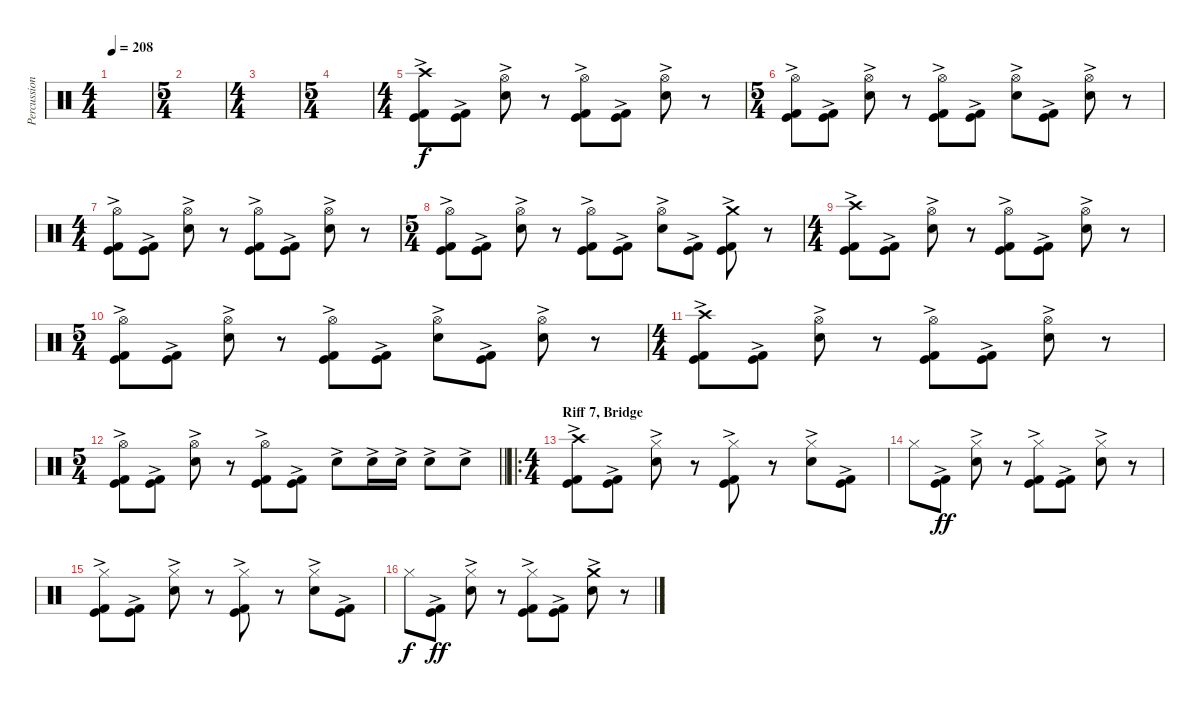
\track ("Percussion" "Percussion") {instrument percussion}
\staff {score}
\articulation defaults
\ts (4 4)
\tempo 208
\clef neutral
\ks c
|
\ts (5 4)
|
\ts (4 4)
|
\ts (5 4)
|
\ts (4 4)
("Kick (hit) 2"{ac} "Kick (hit)"{ac} "Crash high (hit)").8 ("Kick (hit) 2"{ac} "Kick (hit)"{ac}).8 ("Snare (hit) 2"{ac} "Hi-Hat (open)").8 r.8 ("Kick (hit) 2"{ac} "Kick (hit)"{ac} "Hi-Hat (open)").8 ("Kick (hit) 2"{ac} "Kick (hit)"{ac}).8 ("Snare (hit) 2"{ac} "Hi-Hat (open)").8 r.8 |
\ts (5 4)
("Kick (hit) 2"{ac} "Kick (hit)"{ac} "Hi-Hat (open)").8 ("Kick (hit) 2"{ac} "Kick (hit)"{ac}).8 ("Snare (hit) 2"{ac} "Hi-Hat (open)").8 r.8 ("Kick (hit) 2"{ac} "Kick (hit)"{ac} "Hi-Hat (open)").8 ("Kick (hit) 2"{ac} "Kick (hit)"{ac}).8 ("Snare (hit) 2"{ac} "Hi-Hat (open)").8 ("Kick (hit) 2"{ac} "Kick (hit)"{ac}).8 ("Snare (hit) 2"{ac} "Hi-Hat (open)").8 r.8 |
\ts (4 4)
("Kick (hit) 2"{ac} "Kick (hit)"{ac} "Hi-Hat (open)").8 ("Kick (hit) 2"{ac} "Kick (hit)"{ac}).8 ("Snare (hit) 2"{ac} "Hi-Hat (open)").8 r.8 ("Kick (hit) 2"{ac} "Kick (hit)"{ac} "Hi-Hat (open)").8 ("Kick (hit) 2"{ac} "Kick (hit)"{ac}).8 ("Snare (hit) 2"{ac} "Hi-Hat (open)").8 r.8 |
\ts (5 4)
("Kick (hit) 2"{ac} "Kick (hit)"{ac} "Hi-Hat (open)").8 ("Kick (hit) 2"{ac} "Kick (hit)"{ac}).8 ("Snare (hit) 2"{ac} "Hi-Hat (open)").8 r.8 ("Kick (hit) 2"{ac} "Kick (hit)"{ac} "Hi-Hat (open)").8 ("Kick (hit) 2"{ac} "Kick (hit)"{ac}).8 ("Snare (hit) 2"{ac} "Hi-Hat (open)").8 ("Kick (hit) 2"{ac} "Kick (hit)"{ac}).8 ("Kick (hit) 2"{ac} "Kick (hit)" "Crash medium (hit)").8 r.8 |
\ts (4 4)
("Kick (hit) 2"{ac} "Kick (hit)"{ac} "Crash high (hit)").8 ("Kick (hit) 2"{ac} "Kick (hit)"{ac}).8 ("Snare (hit) 2"{ac} "Hi-Hat (open)").8 r.8 ("Kick (hit) 2"{ac} "Kick (hit)"{ac} "Hi-Hat (open)").8 ("Kick (hit) 2"{ac} "Kick (hit)"{ac}).8 ("Snare (hit) 2"{ac} "Hi-Hat (open)").8 r.8 |
\ts (5 4)
("Kick (hit) 2"{ac} "Kick (hit)"{ac} "Hi-Hat (open)").8 ("Kick (hit) 2"{ac} "Kick (hit)"{ac}).8 ("Snare (hit) 2"{ac} "Hi-Hat (open)").8 r.8 ("Kick (hit) 2"{ac} "Kick (hit)"{ac} "Hi-Hat (open)").8 ("Kick (hit) 2"{ac} "Kick (hit)"{ac}).8 ("Snare (hit) 2"{ac} "Hi-Hat (open)").8 ("Kick (hit) 2"{ac} "Kick (hit)"{ac}).8 ("Snare (hit) 2"{ac} "Hi-Hat (open)").8 r.8 |
\ts (4 4)
("Kick (hit) 2"{ac} "Kick (hit)"{ac} "Crash high (hit)").8 ("Kick (hit) 2"{ac} "Kick (hit)"{ac}).8 ("Snare (hit) 2"{ac} "Hi-Hat (open)").8 r.8 ("Kick (hit) 2"{ac} "Kick (hit)"{ac} "Hi-Hat (open)").8 ("Kick (hit) 2"{ac} "Kick (hit)"{ac}).8 ("Snare (hit) 2"{ac} "Hi-Hat (open)").8 r.8 |
\ts (5 4)
\barLineRight lightlight
("Kick (hit) 2"{ac} "Kick (hit)"{ac} "Hi-Hat (open)").8 ("Kick (hit) 2"{ac} "Kick (hit)"{ac}).8 ("Snare (hit) 2"{ac} "Hi-Hat (open)").8 r.8 ("Kick (hit) 2"{ac} "Kick (hit)"{ac} "Hi-Hat (open)").8 ("Kick (hit) 2"{ac} "Kick (hit)"{ac}).8 "Snare (hit) 2"{ac}.8 "Snare (hit) 2"{ac}.16 "Snare (hit) 2"{ac}.16 "Snare (hit) 2"{ac}.8 "Snare (hit) 2"{ac}.8 |
\ro
\ts (4 4)
\section ("" "Riff 7, Bridge")
("Kick (hit)"{ac} "Kick (hit) 2"{ac} "Crash high (hit)").8 ("Kick (hit)"{ac} "Kick (hit) 2"{ac}).8 ("Snare (hit) 2"{ac} "Hi-Hat (closed)").8 r.8 ("Kick (hit)"{ac} "Kick (hit) 2"{ac} "Hi-Hat (closed)").8 r.8 ("Snare (hit) 2"{ac} "Hi-Hat (closed)").8 ("Kick (hit)"{ac} "Kick (hit) 2"{ac}).8 |
"Hi-Hat (closed)".8{dy f} ("Kick (hit)"{ac} "Kick (hit) 2"{ac}).8{dy ff} ("Snare (hit) 2"{ac} "Hi-Hat (closed)").8 r.8 ("Kick (hit) 2"{ac} "Kick (hit)"{ac} "Hi-Hat (closed)").8 ("Kick (hit) 2"{ac} "Kick (hit)"{ac}).8 ("Snare (hit) 2"{ac} "Hi-Hat (closed)").8 r.8 |
("Kick (hit)"{ac} "Kick (hit) 2"{ac} "Hi-Hat (closed)").8 ("Kick (hit)"{ac} "Kick (hit) 2"{ac}).8 ("Snare (hit) 2"{ac} "Hi-Hat (closed)").8 r.8 ("Kick (hit)"{ac} "Kick (hit) 2"{ac} "Hi-Hat (closed)").8 r.8 ("Snare (hit) 2"{ac} "Hi-Hat (closed)").8 ("Kick (hit)"{ac} "Kick (hit) 2"{ac}).8 |
"Hi-Hat (closed)".8{dy f} ("Kick (hit)"{ac} "Kick (hit) 2"{ac}).8{dy ff} ("Snare (hit) 2"{ac} "Hi-Hat (closed)").8 r.8 ("Kick (hit) 2"{ac} "Kick (hit)"{ac} "Hi-Hat (closed)").8 ("Kick (hit) 2"{ac} "Kick (hit)"{ac}).8 ("Snare (hit) 2"{ac} "Crash medium (hit)").8 r.8
